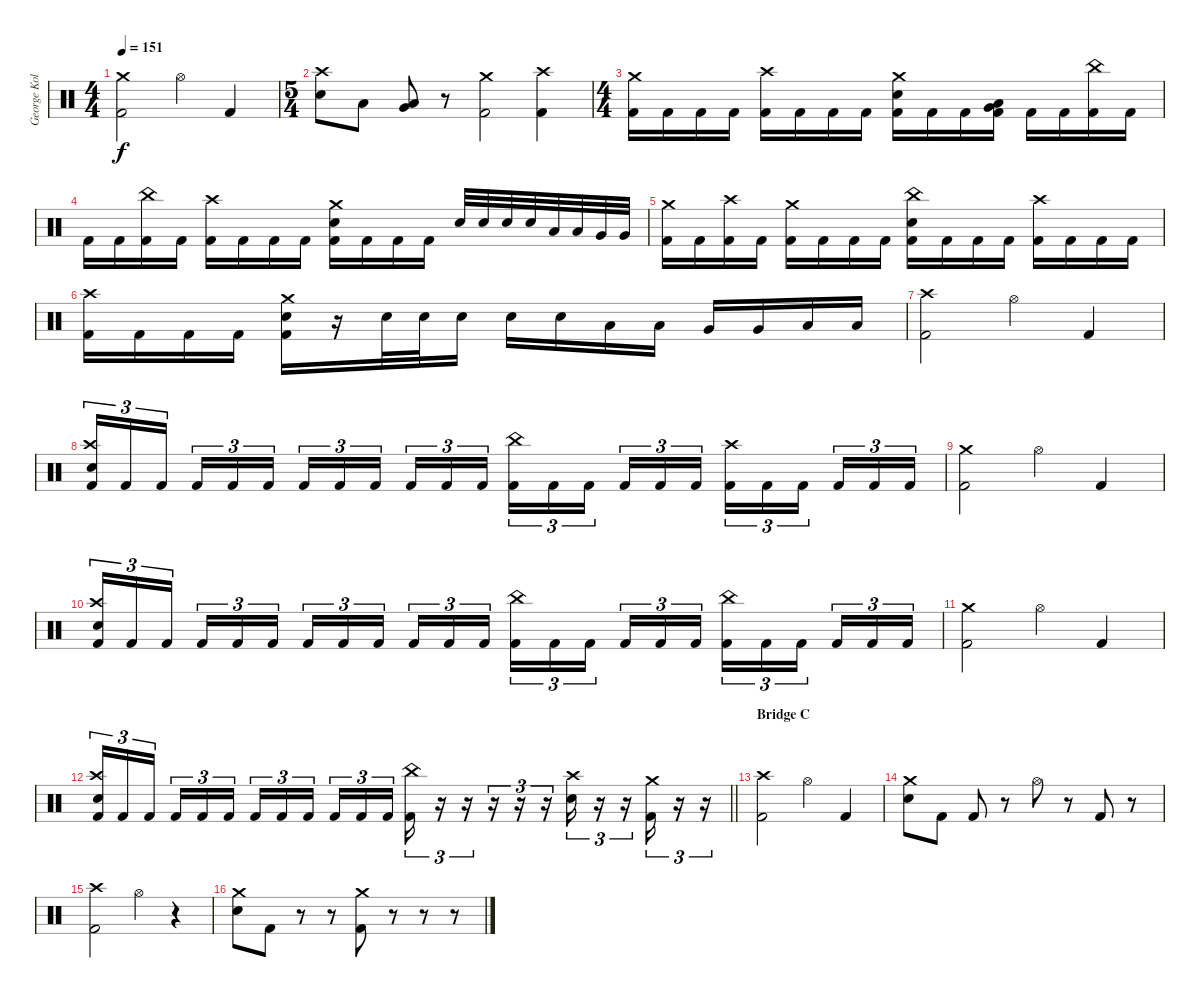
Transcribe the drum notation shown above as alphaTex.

\track ("George Kollias" "George Kol") {instrument percussion}
\staff {score}
\articulation defaults
\ts (4 4)
\tempo 151
\clef neutral
\ks c
("Crash medium (hit)" "Kick (hit) 2").2{dy f} "Hi-Hat (open)".4 "Kick (hit) 2".4 |
\ts (5 4)
("Crash high (hit)" "Electric Snare (hit)").8 "Low Tom (hit)".8 ("Very Low Tom (hit)" "Low Floor Tom (hit)").8 r.8 ("Crash medium (hit)" "Kick (hit) 2").2 ("Crash high (hit)" "Kick (hit) 2").4 |
\ts (4 4)
("Crash medium (hit)" "Kick (hit) 2").16 "Kick (hit) 2".16 "Kick (hit) 2".16 "Kick (hit) 2".16 ("Crash high (hit)" "Kick (hit) 2").16 "Kick (hit) 2".16 "Kick (hit) 2".16 "Kick (hit) 2".16 ("Crash medium (hit)" "Electric Snare (hit)" "Kick (hit) 2").16 "Kick (hit) 2".16 "Kick (hit) 2".16 ("Low Tom (hit)" "Very Low Tom (hit)" "Kick (hit) 2").16 "Kick (hit) 2".16 "Kick (hit) 2".16 ("China (hit)" "Kick (hit) 2").16 "Kick (hit) 2".16 |
"Kick (hit) 2".16 "Kick (hit) 2".16 ("China (hit)" "Kick (hit) 2").16 "Kick (hit) 2".16 ("Crash high (hit)" "Kick (hit) 2").16 "Kick (hit) 2".16 "Kick (hit) 2".16 "Kick (hit) 2".16 ("Crash medium (hit)" "Electric Snare (hit)" "Kick (hit) 2").16 "Kick (hit) 2".16 "Kick (hit) 2".16 "Kick (hit) 2".16 "Electric Snare (hit)".32 "Electric Snare (hit)".32 "Electric Snare (hit)".32 "Electric Snare (hit)".32 "Low Tom (hit)".32 "Low Tom (hit)".32 "Very Low Tom (hit)".32 "Very Low Tom (hit)".32 |
("Crash medium (hit)" "Kick (hit) 2").16 "Kick (hit) 2".16 ("Crash high (hit)" "Kick (hit) 2").16 "Kick (hit) 2".16 ("Crash medium (hit)" "Kick (hit) 2").16 "Kick (hit) 2".16 "Kick (hit) 2".16 "Kick (hit) 2".16 ("China (hit)" "Electric Snare (hit)" "Kick (hit) 2").16 "Kick (hit) 2".16 "Kick (hit) 2".16 "Kick (hit) 2".16 ("Crash high (hit)" "Kick (hit) 2").16 "Kick (hit) 2".16 "Kick (hit) 2".16 "Kick (hit) 2".16 |
("Crash high (hit)" "Kick (hit) 2").16 "Kick (hit) 2".16 "Kick (hit) 2".16 "Kick (hit) 2".16 ("Crash medium (hit)" "Electric Snare (hit)" "Kick (hit) 2").16 r.16 "Electric Snare (hit)".32 "Electric Snare (hit)".32 "Electric Snare (hit)".16 "Electric Snare (hit)".16 "Electric Snare (hit)".16 "Low Tom (hit)".16 "Low Tom (hit)".16 "Very Low Tom (hit)".16 "Very Low Tom (hit)".16 "Low Floor Tom (hit)".16 "Low Floor Tom (hit)".16 |
("Crash high (hit)" "Kick (hit) 2").2 "Hi-Hat (open)".4 "Kick (hit) 2".4 |
("Crash high (hit)" "Electric Snare (hit)" "Kick (hit) 2").16{tu (3 2)} "Kick (hit) 2".16{tu (3 2)} "Kick (hit) 2".16{tu (3 2) beam splitsecondary} "Kick (hit) 2".16{tu (3 2)} "Kick (hit) 2".16{tu (3 2)} "Kick (hit) 2".16{tu (3 2)} "Kick (hit) 2".16{tu (3 2)} "Kick (hit) 2".16{tu (3 2)} "Kick (hit) 2".16{tu (3 2) beam splitsecondary} "Kick (hit) 2".16{tu (3 2)} "Kick (hit) 2".16{tu (3 2)} "Kick (hit) 2".16{tu (3 2)} ("China (hit)" "Kick (hit) 2").16{tu (3 2)} "Kick (hit) 2".16{tu (3 2)} "Kick (hit) 2".16{tu (3 2) beam splitsecondary} "Kick (hit) 2".16{tu (3 2)} "Kick (hit) 2".16{tu (3 2)} "Kick (hit) 2".16{tu (3 2)} ("Crash high (hit)" "Kick (hit) 2").16{tu (3 2)} "Kick (hit) 2".16{tu (3 2)} "Kick (hit) 2".16{tu (3 2) beam splitsecondary} "Kick (hit) 2".16{tu (3 2)} "Kick (hit) 2".16{tu (3 2)} "Kick (hit) 2".16{tu (3 2)} |
("Crash medium (hit)" "Kick (hit) 2").2 "Hi-Hat (open)".4 "Kick (hit) 2".4 |
("Crash high (hit)" "Electric Snare (hit)" "Kick (hit) 2").16{tu (3 2)} "Kick (hit) 2".16{tu (3 2)} "Kick (hit) 2".16{tu (3 2) beam splitsecondary} "Kick (hit) 2".16{tu (3 2)} "Kick (hit) 2".16{tu (3 2)} "Kick (hit) 2".16{tu (3 2)} "Kick (hit) 2".16{tu (3 2)} "Kick (hit) 2".16{tu (3 2)} "Kick (hit) 2".16{tu (3 2) beam splitsecondary} "Kick (hit) 2".16{tu (3 2)} "Kick (hit) 2".16{tu (3 2)} "Kick (hit) 2".16{tu (3 2)} ("China (hit)" "Kick (hit) 2").16{tu (3 2)} "Kick (hit) 2".16{tu (3 2)} "Kick (hit) 2".16{tu (3 2) beam splitsecondary} "Kick (hit) 2".16{tu (3 2)} "Kick (hit) 2".16{tu (3 2)} "Kick (hit) 2".16{tu (3 2)} ("China (hit)" "Kick (hit) 2").16{tu (3 2)} "Kick (hit) 2".16{tu (3 2)} "Kick (hit) 2".16{tu (3 2) beam splitsecondary} "Kick (hit) 2".16{tu (3 2)} "Kick (hit) 2".16{tu (3 2)} "Kick (hit) 2".16{tu (3 2)} |
("Crash medium (hit)" "Kick (hit) 2").2 "Hi-Hat (open)".4 "Kick (hit) 2".4 |
\barLineRight lightlight
("Crash high (hit)" "Electric Snare (hit)" "Kick (hit) 2").16{tu (3 2)} "Kick (hit) 2".16{tu (3 2)} "Kick (hit) 2".16{tu (3 2) beam splitsecondary} "Kick (hit) 2".16{tu (3 2)} "Kick (hit) 2".16{tu (3 2)} "Kick (hit) 2".16{tu (3 2)} "Kick (hit) 2".16{tu (3 2)} "Kick (hit) 2".16{tu (3 2)} "Kick (hit) 2".16{tu (3 2) beam splitsecondary} "Kick (hit) 2".16{tu (3 2)} "Kick (hit) 2".16{tu (3 2)} "Kick (hit) 2".16{tu (3 2)} ("China (hit)" "Kick (hit) 2").16{tu (3 2)} r.16{tu (3 2)} r.16{tu (3 2)} r.16{tu (3 2)} r.16{tu (3 2)} r.16{tu (3 2)} ("Crash high (hit)" "Electric Snare (hit)").16{tu (3 2)} r.16{tu (3 2)} r.16{tu (3 2)} ("Crash medium (hit)" "Kick (hit) 2").16{tu (3 2)} r.16{tu (3 2)} r.16{tu (3 2)} |
\section ("" "Bridge C")
("Crash high (hit)" "Kick (hit) 2").2 "Hi-Hat (open)".4 "Kick (hit) 2".4 |
("Crash medium (hit)" "Electric Snare (hit)").8 "Kick (hit) 2".8 "Kick (hit) 2".8 r.8 "Hi-Hat (open)".8 r.8 "Kick (hit) 2".8 r.8 |
("Crash high (hit)" "Kick (hit) 2").2 "Hi-Hat (open)".4 r.4 |
("Crash medium (hit)" "Electric Snare (hit)").8 "Kick (hit) 2".8 r.8 r.8 ("Crash medium (hit)" "Kick (hit) 2").8 r.8 r.8 r.8
